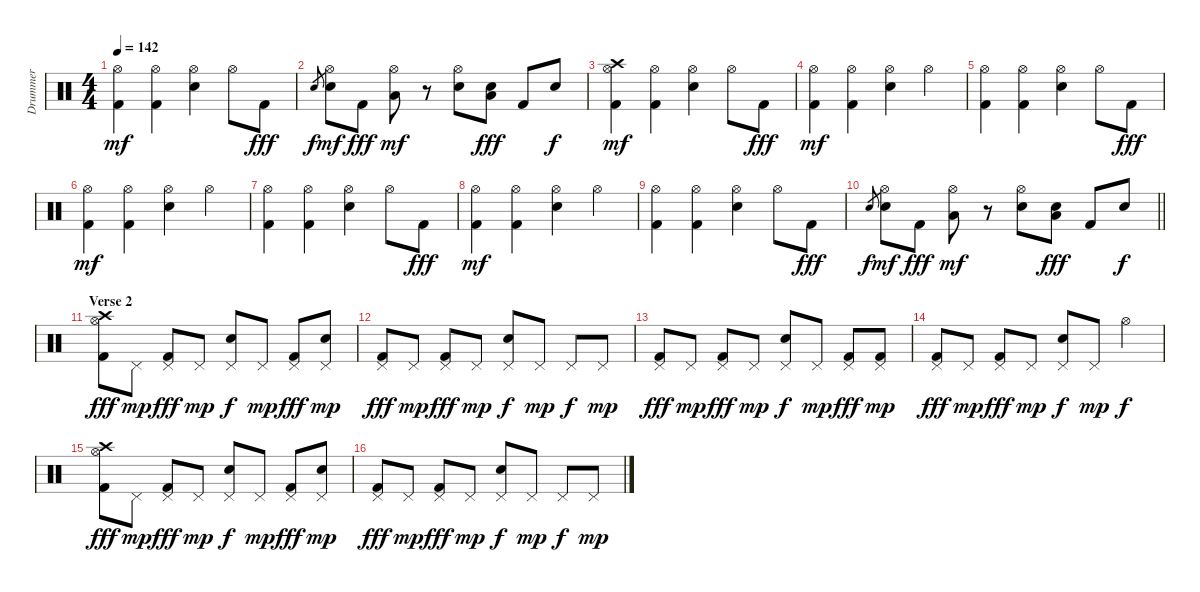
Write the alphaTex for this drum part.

\track ("Drummer" "Drummer") {instrument percussion}
\staff {score}
\articulation defaults
\ts (4 4)
\tempo 142
\clef neutral
\ks c
("Kick (hit) 2" "Hi-Hat (open)").4{dy mf} ("Kick (hit) 2" "Hi-Hat (open)").4 ("Electric Snare (hit)" "Hi-Hat (open)").4 "Hi-Hat (open)".8 "Kick (hit) 2".8{dy fff} |
"Electric Snare (hit)".8{gr dy f} ("Electric Snare (hit)" "Hi-Hat (open)").8{dy mf} "Kick (hit) 2".8{dy fff} ("Low Tom (hit)" "Hi-Hat (open)").8{dy mf} r.8 ("Electric Snare (hit)" "Hi-Hat (open)").8 ("Electric Snare (hit)" "Low Tom (hit)").8{dy fff} "Kick (hit) 2".8 "Electric Snare (hit)".8{dy f} |
("Kick (hit) 2" "Hi-Hat (open)" "Crash high (hit)").4{dy mf} ("Kick (hit) 2" "Hi-Hat (open)").4 ("Electric Snare (hit)" "Hi-Hat (open)").4 "Hi-Hat (open)".8 "Kick (hit) 2".8{dy fff} |
("Kick (hit) 2" "Hi-Hat (open)").4{dy mf} ("Kick (hit) 2" "Hi-Hat (open)").4 ("Electric Snare (hit)" "Hi-Hat (open)").4 "Hi-Hat (open)".4 |
("Kick (hit) 2" "Hi-Hat (open)").4 ("Kick (hit) 2" "Hi-Hat (open)").4 ("Electric Snare (hit)" "Hi-Hat (open)").4 "Hi-Hat (open)".8 "Kick (hit) 2".8{dy fff} |
("Kick (hit) 2" "Hi-Hat (open)").4{dy mf} ("Kick (hit) 2" "Hi-Hat (open)").4 ("Electric Snare (hit)" "Hi-Hat (open)").4 "Hi-Hat (open)".4 |
("Kick (hit) 2" "Hi-Hat (open)").4 ("Kick (hit) 2" "Hi-Hat (open)").4 ("Electric Snare (hit)" "Hi-Hat (open)").4 "Hi-Hat (open)".8 "Kick (hit) 2".8{dy fff} |
("Kick (hit) 2" "Hi-Hat (open)").4{dy mf} ("Kick (hit) 2" "Hi-Hat (open)").4 ("Electric Snare (hit)" "Hi-Hat (open)").4 "Hi-Hat (open)".4 |
("Kick (hit) 2" "Hi-Hat (open)").4 ("Kick (hit) 2" "Hi-Hat (open)").4 ("Electric Snare (hit)" "Hi-Hat (open)").4 "Hi-Hat (open)".8 "Kick (hit) 2".8{dy fff} |
\barLineRight lightlight "Electric Snare (hit)".8{gr dy f}
("Electric Snare (hit)" "Hi-Hat (open)").8{dy mf} "Kick (hit) 2".8{dy fff} ("Low Tom (hit)" "Hi-Hat (open)").8{dy mf} r.8 ("Electric Snare (hit)" "Hi-Hat (open)").8 ("Electric Snare (hit)" "Low Tom (hit)").8{dy fff} "Kick (hit) 2".8 "Electric Snare (hit)".8{dy f} |
\section ("" "Verse 2")
("Kick (hit) 2" "Hi-Hat (open)" "Crash high (hit)").8{dy fff} "Pedal Hi-Hat (hit)".8{dy mp} ("Kick (hit) 2" "Pedal Hi-Hat (hit)").8{dy fff} "Pedal Hi-Hat (hit)".8{dy mp} ("Electric Snare (hit)" "Pedal Hi-Hat (hit)").8{dy f} "Pedal Hi-Hat (hit)".8{dy mp} ("Kick (hit) 2" "Pedal Hi-Hat (hit)").8{dy fff} ("Electric Snare (hit)" "Pedal Hi-Hat (hit)").8{dy mp} |
("Kick (hit) 2" "Pedal Hi-Hat (hit)").8{dy fff} "Pedal Hi-Hat (hit)".8{dy mp} ("Kick (hit) 2" "Pedal Hi-Hat (hit)").8{dy fff} "Pedal Hi-Hat (hit)".8{dy mp} ("Electric Snare (hit)" "Pedal Hi-Hat (hit)").8{dy f} "Pedal Hi-Hat (hit)".8{dy mp} "Pedal Hi-Hat (hit)".8{dy f} "Pedal Hi-Hat (hit)".8{dy mp} |
("Kick (hit) 2" "Pedal Hi-Hat (hit)").8{dy fff} "Pedal Hi-Hat (hit)".8{dy mp} ("Kick (hit) 2" "Pedal Hi-Hat (hit)").8{dy fff} "Pedal Hi-Hat (hit)".8{dy mp} ("Electric Snare (hit)" "Pedal Hi-Hat (hit)").8{dy f} "Pedal Hi-Hat (hit)".8{dy mp} ("Kick (hit) 2" "Pedal Hi-Hat (hit)").8{dy fff} ("Kick (hit) 2" "Pedal Hi-Hat (hit)").8{dy mp} |
("Kick (hit) 2" "Pedal Hi-Hat (hit)").8{dy fff} "Pedal Hi-Hat (hit)".8{dy mp} ("Kick (hit) 2" "Pedal Hi-Hat (hit)").8{dy fff} "Pedal Hi-Hat (hit)".8{dy mp} ("Electric Snare (hit)" "Pedal Hi-Hat (hit)").8{dy f} "Pedal Hi-Hat (hit)".8{dy mp} "Hi-Hat (open)".4{dy f} |
("Kick (hit) 2" "Hi-Hat (open)" "Crash high (hit)").8{dy fff} "Pedal Hi-Hat (hit)".8{dy mp} ("Kick (hit) 2" "Pedal Hi-Hat (hit)").8{dy fff} "Pedal Hi-Hat (hit)".8{dy mp} ("Electric Snare (hit)" "Pedal Hi-Hat (hit)").8{dy f} "Pedal Hi-Hat (hit)".8{dy mp} ("Kick (hit) 2" "Pedal Hi-Hat (hit)").8{dy fff} ("Electric Snare (hit)" "Pedal Hi-Hat (hit)").8{dy mp} |
("Kick (hit) 2" "Pedal Hi-Hat (hit)").8{dy fff} "Pedal Hi-Hat (hit)".8{dy mp} ("Kick (hit) 2" "Pedal Hi-Hat (hit)").8{dy fff} "Pedal Hi-Hat (hit)".8{dy mp} ("Electric Snare (hit)" "Pedal Hi-Hat (hit)").8{dy f} "Pedal Hi-Hat (hit)".8{dy mp} "Pedal Hi-Hat (hit)".8{dy f} "Pedal Hi-Hat (hit)".8{dy mp}
